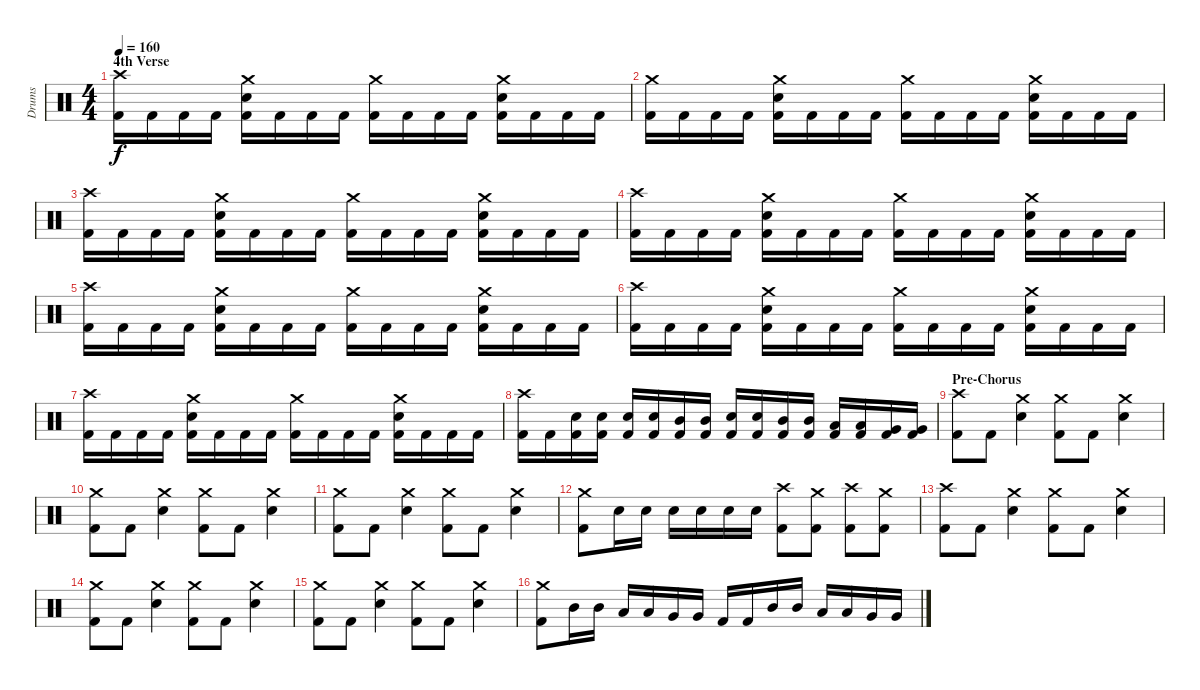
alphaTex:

\track ("Drums" "Drums") {instrument percussion}
\staff {score}
\articulation defaults
\ts (4 4)
\section ("" "4th Verse")
\tempo 160
\clef neutral
\ks c
("Kick (hit) 2" "Crash high (hit)").16{dy f} "Kick (hit) 2".16 "Kick (hit) 2".16 "Kick (hit) 2".16 ("Kick (hit) 2" "Electric Snare (hit)" "Crash medium (hit)").16 "Kick (hit) 2".16 "Kick (hit) 2".16 "Kick (hit) 2".16 ("Kick (hit) 2" "Crash medium (hit)").16 "Kick (hit) 2".16 "Kick (hit) 2".16 "Kick (hit) 2".16 ("Kick (hit) 2" "Electric Snare (hit)" "Crash medium (hit)").16 "Kick (hit) 2".16 "Kick (hit) 2".16 "Kick (hit) 2".16 |
("Kick (hit) 2" "Crash medium (hit)").16 "Kick (hit) 2".16 "Kick (hit) 2".16 "Kick (hit) 2".16 ("Kick (hit) 2" "Electric Snare (hit)" "Crash medium (hit)").16 "Kick (hit) 2".16 "Kick (hit) 2".16 "Kick (hit) 2".16 ("Kick (hit) 2" "Crash medium (hit)").16 "Kick (hit) 2".16 "Kick (hit) 2".16 "Kick (hit) 2".16 ("Kick (hit) 2" "Electric Snare (hit)" "Crash medium (hit)").16 "Kick (hit) 2".16 "Kick (hit) 2".16 "Kick (hit) 2".16 |
("Kick (hit) 2" "Crash high (hit)").16 "Kick (hit) 2".16 "Kick (hit) 2".16 "Kick (hit) 2".16 ("Kick (hit) 2" "Electric Snare (hit)" "Crash medium (hit)").16 "Kick (hit) 2".16 "Kick (hit) 2".16 "Kick (hit) 2".16 ("Kick (hit) 2" "Crash medium (hit)").16 "Kick (hit) 2".16 "Kick (hit) 2".16 "Kick (hit) 2".16 ("Kick (hit) 2" "Electric Snare (hit)" "Crash medium (hit)").16 "Kick (hit) 2".16 "Kick (hit) 2".16 "Kick (hit) 2".16 |
("Kick (hit) 2" "Crash high (hit)").16 "Kick (hit) 2".16 "Kick (hit) 2".16 "Kick (hit) 2".16 ("Kick (hit) 2" "Electric Snare (hit)" "Crash medium (hit)").16 "Kick (hit) 2".16 "Kick (hit) 2".16 "Kick (hit) 2".16 ("Kick (hit) 2" "Crash medium (hit)").16 "Kick (hit) 2".16 "Kick (hit) 2".16 "Kick (hit) 2".16 ("Kick (hit) 2" "Electric Snare (hit)" "Crash medium (hit)").16 "Kick (hit) 2".16 "Kick (hit) 2".16 "Kick (hit) 2".16 |
("Kick (hit) 2" "Crash high (hit)").16 "Kick (hit) 2".16 "Kick (hit) 2".16 "Kick (hit) 2".16 ("Kick (hit) 2" "Electric Snare (hit)" "Crash medium (hit)").16 "Kick (hit) 2".16 "Kick (hit) 2".16 "Kick (hit) 2".16 ("Kick (hit) 2" "Crash medium (hit)").16 "Kick (hit) 2".16 "Kick (hit) 2".16 "Kick (hit) 2".16 ("Kick (hit) 2" "Electric Snare (hit)" "Crash medium (hit)").16 "Kick (hit) 2".16 "Kick (hit) 2".16 "Kick (hit) 2".16 |
("Kick (hit) 2" "Crash high (hit)").16 "Kick (hit) 2".16 "Kick (hit) 2".16 "Kick (hit) 2".16 ("Kick (hit) 2" "Electric Snare (hit)" "Crash medium (hit)").16 "Kick (hit) 2".16 "Kick (hit) 2".16 "Kick (hit) 2".16 ("Kick (hit) 2" "Crash medium (hit)").16 "Kick (hit) 2".16 "Kick (hit) 2".16 "Kick (hit) 2".16 ("Kick (hit) 2" "Electric Snare (hit)" "Crash medium (hit)").16 "Kick (hit) 2".16 "Kick (hit) 2".16 "Kick (hit) 2".16 |
("Kick (hit) 2" "Crash high (hit)").16 "Kick (hit) 2".16 "Kick (hit) 2".16 "Kick (hit) 2".16 ("Kick (hit) 2" "Electric Snare (hit)" "Crash medium (hit)").16 "Kick (hit) 2".16 "Kick (hit) 2".16 "Kick (hit) 2".16 ("Kick (hit) 2" "Crash medium (hit)").16 "Kick (hit) 2".16 "Kick (hit) 2".16 "Kick (hit) 2".16 ("Kick (hit) 2" "Electric Snare (hit)" "Crash medium (hit)").16 "Kick (hit) 2".16 "Kick (hit) 2".16 "Kick (hit) 2".16 |
("Kick (hit) 2" "Crash high (hit)").16 "Kick (hit) 2".16 ("Kick (hit) 2" "Electric Snare (hit)").16 ("Kick (hit) 2" "Electric Snare (hit)").16 ("Kick (hit) 2" "Electric Snare (hit)").16 ("Kick (hit) 2" "Electric Snare (hit)").16 ("Kick (hit) 2" "Mid Tom (hit)").16 ("Kick (hit) 2" "Mid Tom (hit)").16 ("Kick (hit) 2" "Electric Snare (hit)").16 ("Kick (hit) 2" "Electric Snare (hit)").16 ("Kick (hit) 2" "Mid Tom (hit)").16 ("Kick (hit) 2" "Mid Tom (hit)").16 ("Kick (hit) 2" "Low Tom (hit)").16 ("Kick (hit) 2" "Low Tom (hit)").16 ("Kick (hit) 2" "Very Low Tom (hit)").16 ("Kick (hit) 2" "Very Low Tom (hit)").16 |
\section ("" "Pre-Chorus")
("Kick (hit) 2" "Crash high (hit)").8 "Kick (hit) 2".8 ("Electric Snare (hit)" "Crash medium (hit)").4 ("Kick (hit) 2" "Crash medium (hit)").8 "Kick (hit) 2".8 ("Electric Snare (hit)" "Crash medium (hit)").4 |
("Kick (hit) 2" "Crash medium (hit)").8 "Kick (hit) 2".8 ("Electric Snare (hit)" "Crash medium (hit)").4 ("Kick (hit) 2" "Crash medium (hit)").8 "Kick (hit) 2".8 ("Electric Snare (hit)" "Crash medium (hit)").4 |
("Kick (hit) 2" "Crash medium (hit)").8 "Kick (hit) 2".8 ("Electric Snare (hit)" "Crash medium (hit)").4 ("Kick (hit) 2" "Crash medium (hit)").8 "Kick (hit) 2".8 ("Electric Snare (hit)" "Crash medium (hit)").4 |
("Kick (hit) 2" "Crash medium (hit)").8 "Electric Snare (hit)".16 "Electric Snare (hit)".16 "Electric Snare (hit)".16 "Electric Snare (hit)".16 "Electric Snare (hit)".16 "Electric Snare (hit)".16 ("Kick (hit) 2" "Crash high (hit)").8 ("Kick (hit) 2" "Crash medium (hit)").8 ("Kick (hit) 2" "Crash high (hit)").8 ("Kick (hit) 2" "Crash medium (hit)").8 |
("Kick (hit) 2" "Crash high (hit)").8 "Kick (hit) 2".8 ("Electric Snare (hit)" "Crash medium (hit)").4 ("Kick (hit) 2" "Crash medium (hit)").8 "Kick (hit) 2".8 ("Electric Snare (hit)" "Crash medium (hit)").4 |
("Kick (hit) 2" "Crash medium (hit)").8 "Kick (hit) 2".8 ("Electric Snare (hit)" "Crash medium (hit)").4 ("Kick (hit) 2" "Crash medium (hit)").8 "Kick (hit) 2".8 ("Electric Snare (hit)" "Crash medium (hit)").4 |
("Kick (hit) 2" "Crash medium (hit)").8 "Kick (hit) 2".8 ("Electric Snare (hit)" "Crash medium (hit)").4 ("Kick (hit) 2" "Crash medium (hit)").8 "Kick (hit) 2".8 ("Electric Snare (hit)" "Crash medium (hit)").4 |
("Kick (hit) 2" "Crash medium (hit)").8 "Mid Tom (hit)".16 "Mid Tom (hit)".16 "Low Tom (hit)".16 "Low Tom (hit)".16 "Very Low Tom (hit)".16 "Very Low Tom (hit)".16 "Kick (hit) 2".16 "Kick (hit) 2".16 "Mid Tom (hit)".16 "Mid Tom (hit)".16 "Low Tom (hit)".16 "Low Tom (hit)".16 "Very Low Tom (hit)".16 "Very Low Tom (hit)".16
